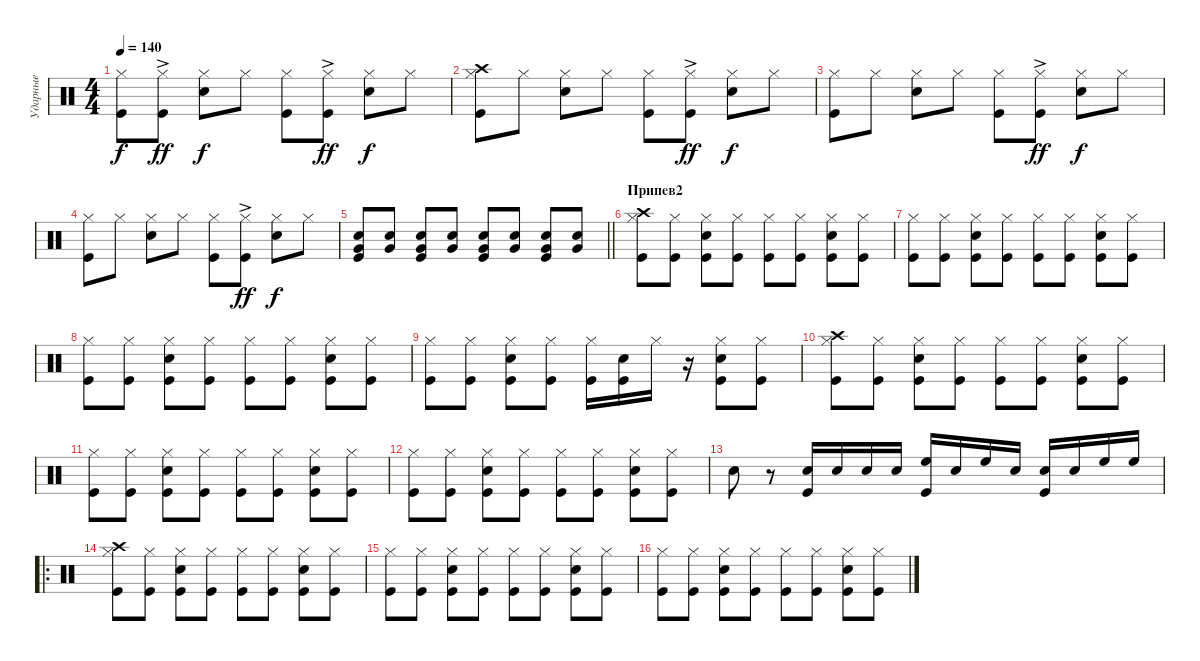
\track ("Ударные" "Ударные") {instrument percussion}
\staff {score}
\articulation defaults
\ts (4 4)
\tempo 140
\clef neutral
\ks c
("Hi-Hat (closed)" "Kick (hit)").8{dy f} ("Hi-Hat (closed)" "Kick (hit)"{ac}).8{dy ff} ("Hi-Hat (closed)" "Snare (hit) 2").8{dy f} "Hi-Hat (closed)".8 ("Hi-Hat (closed)" "Kick (hit)").8 ("Hi-Hat (closed)" "Kick (hit)"{ac}).8{dy ff} ("Hi-Hat (closed)" "Snare (hit) 2").8{dy f} "Hi-Hat (closed)".8 |
("Hi-Hat (closed)" "Kick (hit)" "Crash high (hit)").8 "Hi-Hat (closed)".8 ("Hi-Hat (closed)" "Snare (hit) 2").8 "Hi-Hat (closed)".8 ("Hi-Hat (closed)" "Kick (hit)").8 ("Hi-Hat (closed)" "Kick (hit)"{ac}).8{dy ff} ("Hi-Hat (closed)" "Snare (hit) 2").8{dy f} "Hi-Hat (closed)".8 |
("Hi-Hat (closed)" "Kick (hit)").8 "Hi-Hat (closed)".8 ("Hi-Hat (closed)" "Snare (hit) 2").8 "Hi-Hat (closed)".8 ("Hi-Hat (closed)" "Kick (hit)").8 ("Hi-Hat (closed)" "Kick (hit)"{ac}).8{dy ff} ("Hi-Hat (closed)" "Snare (hit) 2").8{dy f} "Hi-Hat (closed)".8 |
("Hi-Hat (closed)" "Kick (hit)").8 "Hi-Hat (closed)".8 ("Hi-Hat (closed)" "Snare (hit) 2").8 "Hi-Hat (closed)".8 ("Hi-Hat (closed)" "Kick (hit)").8 ("Hi-Hat (closed)" "Kick (hit)"{ac}).8{dy ff} ("Hi-Hat (closed)" "Snare (hit) 2").8{dy f} "Hi-Hat (closed)".8 |
\barLineRight lightlight
("Kick (hit)" "Snare (hit) 2" "Very Low Tom (hit)").8 ("Snare (hit) 2" "Very Low Tom (hit)").8 ("Kick (hit)" "Snare (hit) 2" "Very Low Tom (hit)").8 ("Snare (hit) 2" "Very Low Tom (hit)").8 ("Kick (hit)" "Snare (hit) 2" "Very Low Tom (hit)").8 ("Snare (hit) 2" "Very Low Tom (hit)").8 ("Kick (hit)" "Snare (hit) 2" "Very Low Tom (hit)").8 ("Snare (hit) 2" "Very Low Tom (hit)").8 |
\section ("" "Припев2")
("Hi-Hat (closed)" "Kick (hit)" "Crash high (hit)").8 ("Hi-Hat (closed)" "Kick (hit)").8 ("Hi-Hat (closed)" "Kick (hit)" "Snare (hit) 2").8 ("Hi-Hat (closed)" "Kick (hit)").8 ("Hi-Hat (closed)" "Kick (hit)").8 ("Hi-Hat (closed)" "Kick (hit)").8 ("Hi-Hat (closed)" "Kick (hit)" "Snare (hit) 2").8 ("Hi-Hat (closed)" "Kick (hit)").8 |
("Hi-Hat (closed)" "Kick (hit)").8 ("Hi-Hat (closed)" "Kick (hit)").8 ("Hi-Hat (closed)" "Kick (hit)" "Snare (hit) 2").8 ("Hi-Hat (closed)" "Kick (hit)").8 ("Hi-Hat (closed)" "Kick (hit)").8 ("Hi-Hat (closed)" "Kick (hit)").8 ("Hi-Hat (closed)" "Kick (hit)" "Snare (hit) 2").8 ("Hi-Hat (closed)" "Kick (hit)").8 |
("Hi-Hat (closed)" "Kick (hit)").8 ("Hi-Hat (closed)" "Kick (hit)").8 ("Hi-Hat (closed)" "Kick (hit)" "Snare (hit) 2").8 ("Hi-Hat (closed)" "Kick (hit)").8 ("Hi-Hat (closed)" "Kick (hit)").8 ("Hi-Hat (closed)" "Kick (hit)").8 ("Hi-Hat (closed)" "Kick (hit)" "Snare (hit) 2").8 ("Hi-Hat (closed)" "Kick (hit)").8 |
("Hi-Hat (closed)" "Kick (hit)").8 ("Hi-Hat (closed)" "Kick (hit)").8 ("Hi-Hat (closed)" "Kick (hit)" "Snare (hit) 2").8 ("Hi-Hat (closed)" "Kick (hit)").8 ("Hi-Hat (closed)" "Kick (hit)").16 ("Kick (hit)" "Snare (hit) 2").16 "Hi-Hat (closed)".16 r.16 ("Hi-Hat (closed)" "Kick (hit)" "Snare (hit) 2").8 ("Hi-Hat (closed)" "Kick (hit)").8 |
("Hi-Hat (closed)" "Kick (hit)" "Crash high (hit)").8 ("Hi-Hat (closed)" "Kick (hit)").8 ("Hi-Hat (closed)" "Kick (hit)" "Snare (hit) 2").8 ("Hi-Hat (closed)" "Kick (hit)").8 ("Hi-Hat (closed)" "Kick (hit)").8 ("Hi-Hat (closed)" "Kick (hit)").8 ("Hi-Hat (closed)" "Kick (hit)" "Snare (hit) 2").8 ("Hi-Hat (closed)" "Kick (hit)").8 |
("Hi-Hat (closed)" "Kick (hit)").8 ("Hi-Hat (closed)" "Kick (hit)").8 ("Hi-Hat (closed)" "Kick (hit)" "Snare (hit) 2").8 ("Hi-Hat (closed)" "Kick (hit)").8 ("Hi-Hat (closed)" "Kick (hit)").8 ("Hi-Hat (closed)" "Kick (hit)").8 ("Hi-Hat (closed)" "Kick (hit)" "Snare (hit) 2").8 ("Hi-Hat (closed)" "Kick (hit)").8 |
("Hi-Hat (closed)" "Kick (hit)").8 ("Hi-Hat (closed)" "Kick (hit)").8 ("Hi-Hat (closed)" "Kick (hit)" "Snare (hit) 2").8 ("Hi-Hat (closed)" "Kick (hit)").8 ("Hi-Hat (closed)" "Kick (hit)").8 ("Hi-Hat (closed)" "Kick (hit)").8 ("Hi-Hat (closed)" "Kick (hit)" "Snare (hit) 2").8 ("Hi-Hat (closed)" "Kick (hit)").8 |
"Snare (hit) 2".8 r.8 ("Snare (hit) 2" "Kick (hit)").16 "Snare (hit) 2".16 "Snare (hit) 2".16 "Snare (hit) 2".16 ("High Floor Tom (hit)" "Kick (hit)").16 "Snare (hit) 2".16 "High Floor Tom (hit)".16 "Snare (hit) 2".16 ("Snare (hit) 2" "Kick (hit)").16 "Snare (hit) 2".16 "High Floor Tom (hit)".16 "High Floor Tom (hit)".16 |
\ro
("Hi-Hat (closed)" "Kick (hit)" "Crash high (hit)").8 ("Hi-Hat (closed)" "Kick (hit)").8 ("Hi-Hat (closed)" "Kick (hit)" "Snare (hit) 2").8 ("Hi-Hat (closed)" "Kick (hit)").8 ("Hi-Hat (closed)" "Kick (hit)").8 ("Hi-Hat (closed)" "Kick (hit)").8 ("Hi-Hat (closed)" "Kick (hit)" "Snare (hit) 2").8 ("Hi-Hat (closed)" "Kick (hit)").8 |
("Hi-Hat (closed)" "Kick (hit)").8 ("Hi-Hat (closed)" "Kick (hit)").8 ("Hi-Hat (closed)" "Kick (hit)" "Snare (hit) 2").8 ("Hi-Hat (closed)" "Kick (hit)").8 ("Hi-Hat (closed)" "Kick (hit)").8 ("Hi-Hat (closed)" "Kick (hit)").8 ("Hi-Hat (closed)" "Kick (hit)" "Snare (hit) 2").8 ("Hi-Hat (closed)" "Kick (hit)").8 |
("Hi-Hat (closed)" "Kick (hit)").8 ("Hi-Hat (closed)" "Kick (hit)").8 ("Hi-Hat (closed)" "Kick (hit)" "Snare (hit) 2").8 ("Hi-Hat (closed)" "Kick (hit)").8 ("Hi-Hat (closed)" "Kick (hit)").8 ("Hi-Hat (closed)" "Kick (hit)").8 ("Hi-Hat (closed)" "Kick (hit)" "Snare (hit) 2").8 ("Hi-Hat (closed)" "Kick (hit)").8
